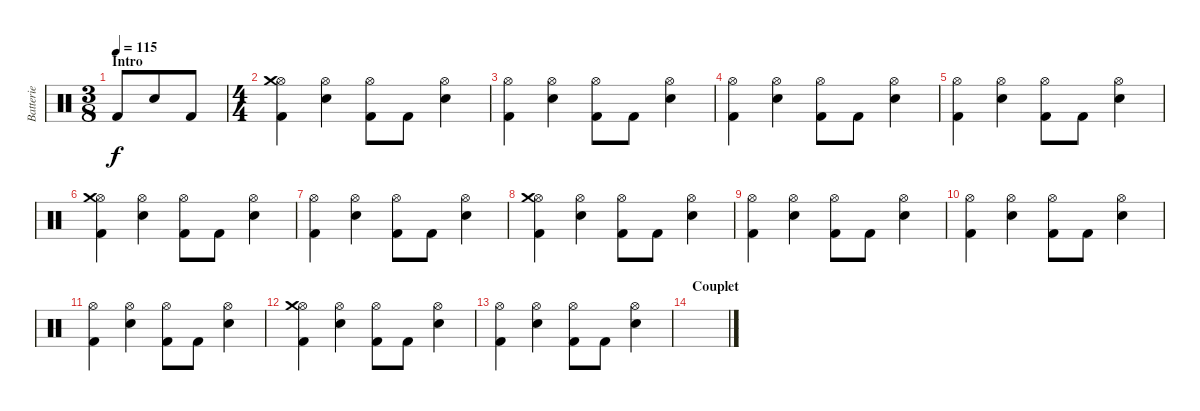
\track ("Batterie" "Batterie") {instrument percussion}
\staff {score}
\articulation defaults
\ts (3 8)
\section ("" "Intro")
\tempo 115
\clef neutral
\ks c "Kick (hit) 2".8{dy f} "Snare (hit) 2".8 "Kick (hit) 2".8
|
\ts (4 4)
("Hi-Hat (open)" "Crash medium (hit)" "Kick (hit) 2").4 ("Hi-Hat (open)" "Snare (hit) 2").4 ("Hi-Hat (open)" "Kick (hit) 2").8 "Kick (hit) 2".8 ("Hi-Hat (open)" "Snare (hit) 2").4 |
("Hi-Hat (open)" "Kick (hit) 2").4 ("Hi-Hat (open)" "Snare (hit) 2").4 ("Hi-Hat (open)" "Kick (hit) 2").8 "Kick (hit) 2".8 ("Hi-Hat (open)" "Snare (hit) 2").4 |
("Hi-Hat (open)" "Kick (hit) 2").4 ("Hi-Hat (open)" "Snare (hit) 2").4 ("Hi-Hat (open)" "Kick (hit) 2").8 "Kick (hit) 2".8 ("Hi-Hat (open)" "Snare (hit) 2").4 |
("Hi-Hat (open)" "Kick (hit) 2").4 ("Hi-Hat (open)" "Snare (hit) 2").4 ("Hi-Hat (open)" "Kick (hit) 2").8 "Kick (hit) 2".8 ("Hi-Hat (open)" "Snare (hit) 2").4 |
("Hi-Hat (open)" "Crash medium (hit)" "Kick (hit) 2").4 ("Hi-Hat (open)" "Snare (hit) 2").4 ("Hi-Hat (open)" "Kick (hit) 2").8 "Kick (hit) 2".8 ("Hi-Hat (open)" "Snare (hit) 2").4 |
("Hi-Hat (open)" "Kick (hit) 2").4 ("Hi-Hat (open)" "Snare (hit) 2").4 ("Hi-Hat (open)" "Kick (hit) 2").8 "Kick (hit) 2".8 ("Hi-Hat (open)" "Snare (hit) 2").4 |
("Hi-Hat (open)" "Crash medium (hit)" "Kick (hit) 2").4 ("Hi-Hat (open)" "Snare (hit) 2").4 ("Hi-Hat (open)" "Kick (hit) 2").8 "Kick (hit) 2".8 ("Hi-Hat (open)" "Snare (hit) 2").4 |
("Hi-Hat (open)" "Kick (hit) 2").4 ("Hi-Hat (open)" "Snare (hit) 2").4 ("Hi-Hat (open)" "Kick (hit) 2").8 "Kick (hit) 2".8 ("Hi-Hat (open)" "Snare (hit) 2").4 |
("Hi-Hat (open)" "Kick (hit) 2").4 ("Hi-Hat (open)" "Snare (hit) 2").4 ("Hi-Hat (open)" "Kick (hit) 2").8 "Kick (hit) 2".8 ("Hi-Hat (open)" "Snare (hit) 2").4 |
("Hi-Hat (open)" "Kick (hit) 2").4 ("Hi-Hat (open)" "Snare (hit) 2").4 ("Hi-Hat (open)" "Kick (hit) 2").8 "Kick (hit) 2".8 ("Hi-Hat (open)" "Snare (hit) 2").4 |
("Hi-Hat (open)" "Crash medium (hit)" "Kick (hit) 2").4 ("Hi-Hat (open)" "Snare (hit) 2").4 ("Hi-Hat (open)" "Kick (hit) 2").8 "Kick (hit) 2".8 ("Hi-Hat (open)" "Snare (hit) 2").4 |
("Hi-Hat (open)" "Kick (hit) 2").4 ("Hi-Hat (open)" "Snare (hit) 2").4 ("Hi-Hat (open)" "Kick (hit) 2").8 "Kick (hit) 2".8 ("Hi-Hat (open)" "Snare (hit) 2").4 |
\section ("" "Couplet")
